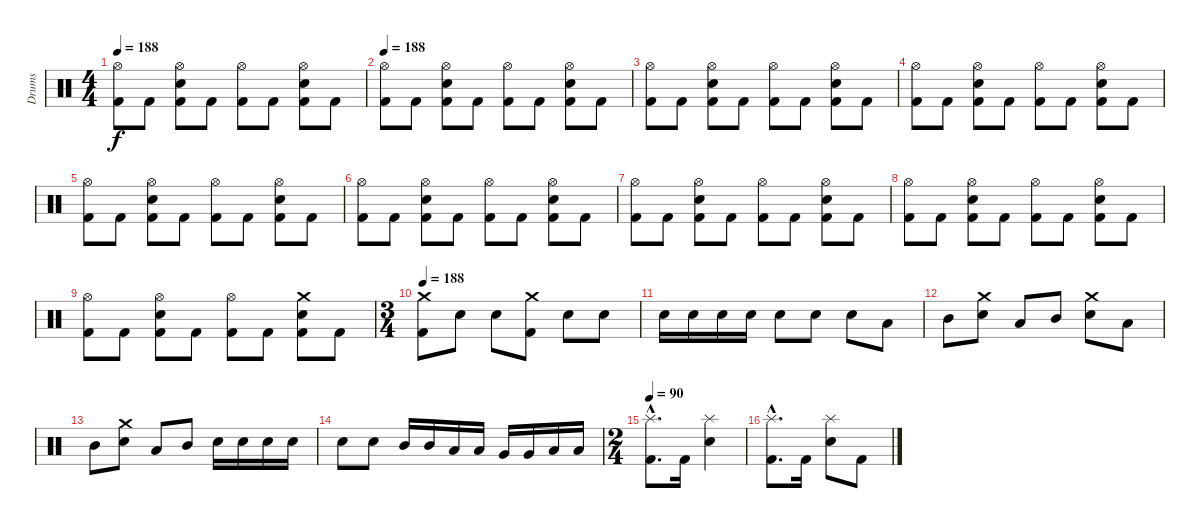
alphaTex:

\track ("Drums" "Drums") {instrument percussion}
\staff {score}
\articulation defaults
\ts (4 4)
\tempo 188
\clef neutral
\ks c
("Hi-Hat (open)" "Kick (hit) 2").8{dy f} "Kick (hit) 2".8 ("Electric Snare (hit)" "Hi-Hat (open)" "Kick (hit) 2").8 "Kick (hit) 2".8 ("Hi-Hat (open)" "Kick (hit) 2").8 "Kick (hit) 2".8 ("Electric Snare (hit)" "Hi-Hat (open)" "Kick (hit) 2").8 "Kick (hit) 2".8 |
\tempo 188
("Hi-Hat (open)" "Kick (hit) 2").8 "Kick (hit) 2".8 ("Electric Snare (hit)" "Hi-Hat (open)" "Kick (hit) 2").8 "Kick (hit) 2".8 ("Hi-Hat (open)" "Kick (hit) 2").8 "Kick (hit) 2".8 ("Electric Snare (hit)" "Hi-Hat (open)" "Kick (hit) 2").8 "Kick (hit) 2".8 |
("Hi-Hat (open)" "Kick (hit) 2").8 "Kick (hit) 2".8 ("Electric Snare (hit)" "Hi-Hat (open)" "Kick (hit) 2").8 "Kick (hit) 2".8 ("Hi-Hat (open)" "Kick (hit) 2").8 "Kick (hit) 2".8 ("Electric Snare (hit)" "Hi-Hat (open)" "Kick (hit) 2").8 "Kick (hit) 2".8 |
("Hi-Hat (open)" "Kick (hit) 2").8 "Kick (hit) 2".8 ("Electric Snare (hit)" "Hi-Hat (open)" "Kick (hit) 2").8 "Kick (hit) 2".8 ("Hi-Hat (open)" "Kick (hit) 2").8 "Kick (hit) 2".8 ("Electric Snare (hit)" "Hi-Hat (open)" "Kick (hit) 2").8 "Kick (hit) 2".8 |
("Hi-Hat (open)" "Kick (hit) 2").8 "Kick (hit) 2".8 ("Electric Snare (hit)" "Hi-Hat (open)" "Kick (hit) 2").8 "Kick (hit) 2".8 ("Hi-Hat (open)" "Kick (hit) 2").8 "Kick (hit) 2".8 ("Electric Snare (hit)" "Hi-Hat (open)" "Kick (hit) 2").8 "Kick (hit) 2".8 |
("Hi-Hat (open)" "Kick (hit) 2").8 "Kick (hit) 2".8 ("Electric Snare (hit)" "Hi-Hat (open)" "Kick (hit) 2").8 "Kick (hit) 2".8 ("Hi-Hat (open)" "Kick (hit) 2").8 "Kick (hit) 2".8 ("Electric Snare (hit)" "Hi-Hat (open)" "Kick (hit) 2").8 "Kick (hit) 2".8 |
("Hi-Hat (open)" "Kick (hit) 2").8 "Kick (hit) 2".8 ("Electric Snare (hit)" "Hi-Hat (open)" "Kick (hit) 2").8 "Kick (hit) 2".8 ("Hi-Hat (open)" "Kick (hit) 2").8 "Kick (hit) 2".8 ("Electric Snare (hit)" "Hi-Hat (open)" "Kick (hit) 2").8 "Kick (hit) 2".8 |
("Hi-Hat (open)" "Kick (hit) 2").8 "Kick (hit) 2".8 ("Electric Snare (hit)" "Hi-Hat (open)" "Kick (hit) 2").8 "Kick (hit) 2".8 ("Hi-Hat (open)" "Kick (hit) 2").8 "Kick (hit) 2".8 ("Electric Snare (hit)" "Hi-Hat (open)" "Kick (hit) 2").8 "Kick (hit) 2".8 |
("Hi-Hat (open)" "Kick (hit) 2").8 "Kick (hit) 2".8 ("Electric Snare (hit)" "Hi-Hat (open)" "Kick (hit) 2").8 "Kick (hit) 2".8 ("Hi-Hat (open)" "Kick (hit) 2").8 "Kick (hit) 2".8 ("Electric Snare (hit)" "Crash medium (hit)" "Kick (hit) 2").8 "Kick (hit) 2".8 |
\ts (3 4)
\tempo 188
("Crash medium (hit)" "Kick (hit) 2").8 "Electric Snare (hit)".8 "Electric Snare (hit)".8 ("Crash medium (hit)" "Kick (hit) 2").8 "Electric Snare (hit)".8 "Electric Snare (hit)".8 |
"Electric Snare (hit)".16 "Electric Snare (hit)".16 "Electric Snare (hit)".16 "Electric Snare (hit)".16 "Electric Snare (hit)".8 "Electric Snare (hit)".8 "Electric Snare (hit)".8 "Low Tom (hit)".8 |
"Mid Tom (hit)".8 ("Electric Snare (hit)" "Crash medium (hit)").8 "Low Tom (hit)".8 "Mid Tom (hit)".8 ("Electric Snare (hit)" "Crash medium (hit)").8 "Low Tom (hit)".8 |
"Mid Tom (hit)".8 ("Electric Snare (hit)" "Crash medium (hit)").8 "Low Tom (hit)".8 "Mid Tom (hit)".8 "Electric Snare (hit)".16 "Electric Snare (hit)".16 "Electric Snare (hit)".16 "Electric Snare (hit)".16 |
"Electric Snare (hit)".8 "Electric Snare (hit)".8 "Mid Tom (hit)".16 "Mid Tom (hit)".16 "Low Tom (hit)".16 "Low Tom (hit)".16 "Very Low Tom (hit)".16 "Very Low Tom (hit)".16 "Low Floor Tom (hit)".16 "Low Floor Tom (hit)".16 |
\ts (2 4)
\tempo 90
("Splash (hit)"{hac} "Kick (hit) 2"{hac}).8{d} "Kick (hit) 2".16 ("Electric Snare (hit)" "Splash (hit)").4 |
("Splash (hit)"{hac} "Kick (hit) 2"{hac}).8{d} "Kick (hit) 2".16 ("Electric Snare (hit)" "Splash (hit)").8 "Kick (hit) 2".8
